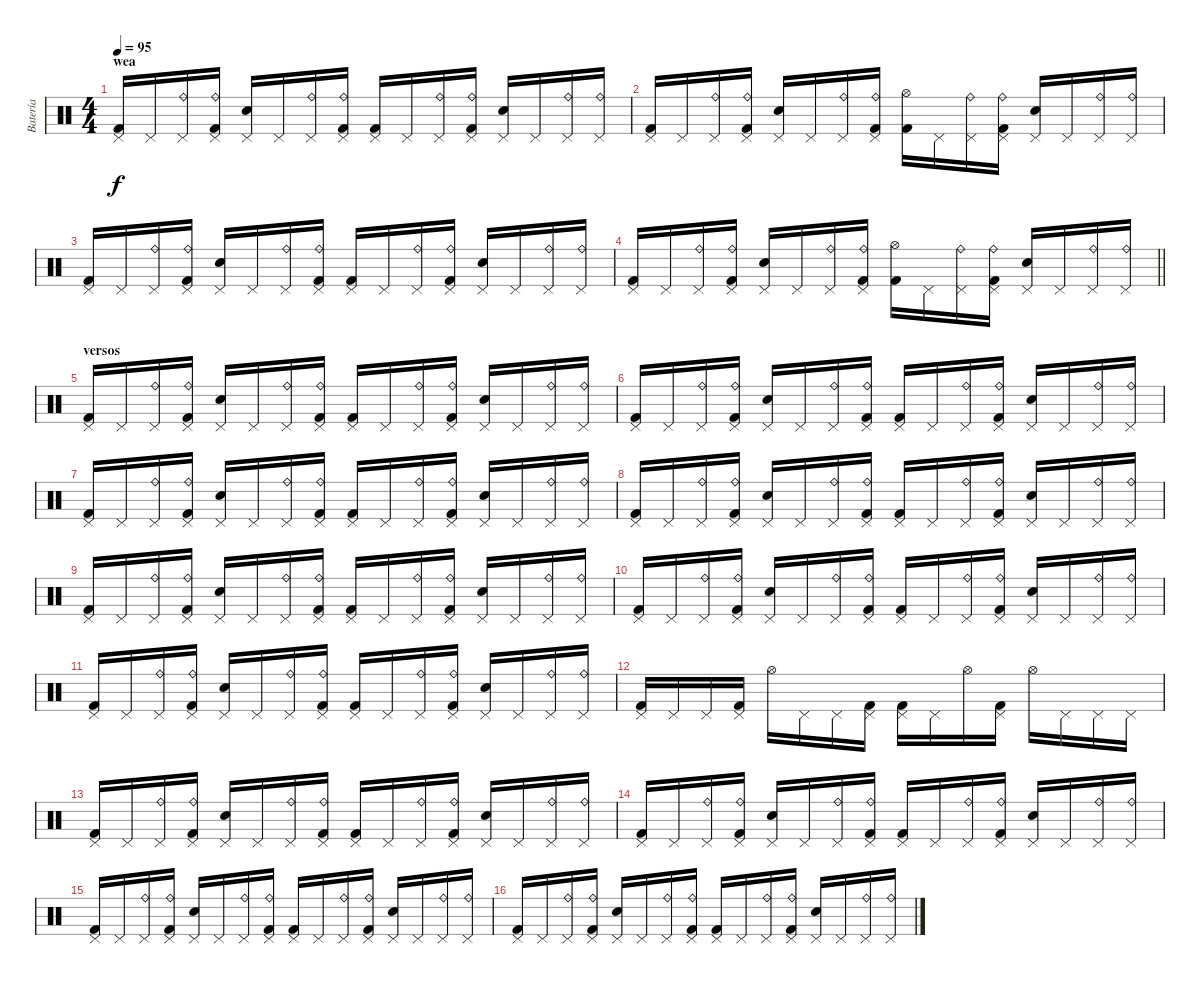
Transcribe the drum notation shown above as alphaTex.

\track ("Batería" "Batería") {instrument percussion}
\staff {score}
\articulation defaults
\ts (4 4)
\section ("" "wea")
\tempo 95
\clef neutral
\ks c
("Pedal Hi-Hat (hit)" "Kick (hit) 2").16{dy f} "Pedal Hi-Hat (hit)".16 ("Ride (bell)" "Pedal Hi-Hat (hit)").16 ("Ride (bell)" "Pedal Hi-Hat (hit)" "Kick (hit) 2").16 ("Pedal Hi-Hat (hit)" "Snare (hit) 2").16 "Pedal Hi-Hat (hit)".16 ("Ride (bell)" "Pedal Hi-Hat (hit)").16 ("Ride (bell)" "Pedal Hi-Hat (hit)" "Kick (hit) 2").16 ("Pedal Hi-Hat (hit)" "Kick (hit) 2").16 "Pedal Hi-Hat (hit)".16 ("Ride (bell)" "Pedal Hi-Hat (hit)").16 ("Ride (bell)" "Pedal Hi-Hat (hit)" "Kick (hit) 2").16 ("Pedal Hi-Hat (hit)" "Snare (hit) 2").16 "Pedal Hi-Hat (hit)".16 ("Ride (bell)" "Pedal Hi-Hat (hit)").16 ("Ride (bell)" "Pedal Hi-Hat (hit)").16 |
("Pedal Hi-Hat (hit)" "Kick (hit) 2").16 "Pedal Hi-Hat (hit)".16 ("Ride (bell)" "Pedal Hi-Hat (hit)").16 ("Ride (bell)" "Pedal Hi-Hat (hit)" "Kick (hit) 2").16 ("Pedal Hi-Hat (hit)" "Snare (hit) 2").16 "Pedal Hi-Hat (hit)".16 ("Ride (bell)" "Pedal Hi-Hat (hit)").16 ("Ride (bell)" "Pedal Hi-Hat (hit)" "Kick (hit) 2").16 ("Hi-Hat (open)" "Kick (hit) 2").16 "Pedal Hi-Hat (hit)".16 ("Ride (bell)" "Pedal Hi-Hat (hit)").16 ("Ride (bell)" "Pedal Hi-Hat (hit)" "Kick (hit) 2").16 ("Pedal Hi-Hat (hit)" "Snare (hit) 2").16 "Pedal Hi-Hat (hit)".16 ("Ride (bell)" "Pedal Hi-Hat (hit)").16 ("Ride (bell)" "Pedal Hi-Hat (hit)").16 |
("Pedal Hi-Hat (hit)" "Kick (hit) 2").16 "Pedal Hi-Hat (hit)".16 ("Ride (bell)" "Pedal Hi-Hat (hit)").16 ("Ride (bell)" "Pedal Hi-Hat (hit)" "Kick (hit) 2").16 ("Pedal Hi-Hat (hit)" "Snare (hit) 2").16 "Pedal Hi-Hat (hit)".16 ("Ride (bell)" "Pedal Hi-Hat (hit)").16 ("Ride (bell)" "Pedal Hi-Hat (hit)" "Kick (hit) 2").16 ("Pedal Hi-Hat (hit)" "Kick (hit) 2").16 "Pedal Hi-Hat (hit)".16 ("Ride (bell)" "Pedal Hi-Hat (hit)").16 ("Ride (bell)" "Pedal Hi-Hat (hit)" "Kick (hit) 2").16 ("Pedal Hi-Hat (hit)" "Snare (hit) 2").16 "Pedal Hi-Hat (hit)".16 ("Ride (bell)" "Pedal Hi-Hat (hit)").16 ("Ride (bell)" "Pedal Hi-Hat (hit)").16 |
\barLineRight lightlight
("Pedal Hi-Hat (hit)" "Kick (hit) 2").16 "Pedal Hi-Hat (hit)".16 ("Ride (bell)" "Pedal Hi-Hat (hit)").16 ("Ride (bell)" "Pedal Hi-Hat (hit)" "Kick (hit) 2").16 ("Pedal Hi-Hat (hit)" "Snare (hit) 2").16 "Pedal Hi-Hat (hit)".16 ("Ride (bell)" "Pedal Hi-Hat (hit)").16 ("Ride (bell)" "Pedal Hi-Hat (hit)" "Kick (hit) 2").16 ("Hi-Hat (open)" "Kick (hit) 2").16 "Pedal Hi-Hat (hit)".16 ("Ride (bell)" "Pedal Hi-Hat (hit)").16 ("Ride (bell)" "Pedal Hi-Hat (hit)" "Kick (hit) 2").16 ("Pedal Hi-Hat (hit)" "Snare (hit) 2").16 "Pedal Hi-Hat (hit)".16 ("Ride (bell)" "Pedal Hi-Hat (hit)").16 ("Ride (bell)" "Pedal Hi-Hat (hit)").16 |
\section ("" "versos")
("Pedal Hi-Hat (hit)" "Kick (hit) 2").16 "Pedal Hi-Hat (hit)".16 ("Ride (bell)" "Pedal Hi-Hat (hit)").16 ("Ride (bell)" "Pedal Hi-Hat (hit)" "Kick (hit) 2").16 ("Pedal Hi-Hat (hit)" "Snare (hit) 2").16 "Pedal Hi-Hat (hit)".16 ("Ride (bell)" "Pedal Hi-Hat (hit)").16 ("Ride (bell)" "Pedal Hi-Hat (hit)" "Kick (hit) 2").16 ("Pedal Hi-Hat (hit)" "Kick (hit) 2").16 "Pedal Hi-Hat (hit)".16 ("Ride (bell)" "Pedal Hi-Hat (hit)").16 ("Ride (bell)" "Pedal Hi-Hat (hit)" "Kick (hit) 2").16 ("Pedal Hi-Hat (hit)" "Snare (hit) 2").16 "Pedal Hi-Hat (hit)".16 ("Ride (bell)" "Pedal Hi-Hat (hit)").16 ("Ride (bell)" "Pedal Hi-Hat (hit)").16 |
("Pedal Hi-Hat (hit)" "Kick (hit) 2").16 "Pedal Hi-Hat (hit)".16 ("Ride (bell)" "Pedal Hi-Hat (hit)").16 ("Ride (bell)" "Pedal Hi-Hat (hit)" "Kick (hit) 2").16 ("Pedal Hi-Hat (hit)" "Snare (hit) 2").16 "Pedal Hi-Hat (hit)".16 ("Ride (bell)" "Pedal Hi-Hat (hit)").16 ("Ride (bell)" "Pedal Hi-Hat (hit)" "Kick (hit) 2").16 ("Pedal Hi-Hat (hit)" "Kick (hit) 2").16 "Pedal Hi-Hat (hit)".16 ("Ride (bell)" "Pedal Hi-Hat (hit)").16 ("Ride (bell)" "Pedal Hi-Hat (hit)" "Kick (hit) 2").16 ("Pedal Hi-Hat (hit)" "Snare (hit) 2").16 "Pedal Hi-Hat (hit)".16 ("Ride (bell)" "Pedal Hi-Hat (hit)").16 ("Ride (bell)" "Pedal Hi-Hat (hit)").16 |
("Pedal Hi-Hat (hit)" "Kick (hit) 2").16 "Pedal Hi-Hat (hit)".16 ("Ride (bell)" "Pedal Hi-Hat (hit)").16 ("Ride (bell)" "Pedal Hi-Hat (hit)" "Kick (hit) 2").16 ("Pedal Hi-Hat (hit)" "Snare (hit) 2").16 "Pedal Hi-Hat (hit)".16 ("Ride (bell)" "Pedal Hi-Hat (hit)").16 ("Ride (bell)" "Pedal Hi-Hat (hit)" "Kick (hit) 2").16 ("Pedal Hi-Hat (hit)" "Kick (hit) 2").16 "Pedal Hi-Hat (hit)".16 ("Ride (bell)" "Pedal Hi-Hat (hit)").16 ("Ride (bell)" "Pedal Hi-Hat (hit)" "Kick (hit) 2").16 ("Pedal Hi-Hat (hit)" "Snare (hit) 2").16 "Pedal Hi-Hat (hit)".16 ("Ride (bell)" "Pedal Hi-Hat (hit)").16 ("Ride (bell)" "Pedal Hi-Hat (hit)").16 |
("Pedal Hi-Hat (hit)" "Kick (hit) 2").16 "Pedal Hi-Hat (hit)".16 ("Ride (bell)" "Pedal Hi-Hat (hit)").16 ("Ride (bell)" "Pedal Hi-Hat (hit)" "Kick (hit) 2").16 ("Pedal Hi-Hat (hit)" "Snare (hit) 2").16 "Pedal Hi-Hat (hit)".16 ("Ride (bell)" "Pedal Hi-Hat (hit)").16 ("Ride (bell)" "Pedal Hi-Hat (hit)" "Kick (hit) 2").16 ("Pedal Hi-Hat (hit)" "Kick (hit) 2").16 "Pedal Hi-Hat (hit)".16 ("Ride (bell)" "Pedal Hi-Hat (hit)").16 ("Ride (bell)" "Pedal Hi-Hat (hit)" "Kick (hit) 2").16 ("Pedal Hi-Hat (hit)" "Snare (hit) 2").16 "Pedal Hi-Hat (hit)".16 ("Ride (bell)" "Pedal Hi-Hat (hit)").16 ("Ride (bell)" "Pedal Hi-Hat (hit)").16 |
("Pedal Hi-Hat (hit)" "Kick (hit) 2").16 "Pedal Hi-Hat (hit)".16 ("Ride (bell)" "Pedal Hi-Hat (hit)").16 ("Ride (bell)" "Pedal Hi-Hat (hit)" "Kick (hit) 2").16 ("Pedal Hi-Hat (hit)" "Snare (hit) 2").16 "Pedal Hi-Hat (hit)".16 ("Ride (bell)" "Pedal Hi-Hat (hit)").16 ("Ride (bell)" "Pedal Hi-Hat (hit)" "Kick (hit) 2").16 ("Pedal Hi-Hat (hit)" "Kick (hit) 2").16 "Pedal Hi-Hat (hit)".16 ("Ride (bell)" "Pedal Hi-Hat (hit)").16 ("Ride (bell)" "Pedal Hi-Hat (hit)" "Kick (hit) 2").16 ("Pedal Hi-Hat (hit)" "Snare (hit) 2").16 "Pedal Hi-Hat (hit)".16 ("Ride (bell)" "Pedal Hi-Hat (hit)").16 ("Ride (bell)" "Pedal Hi-Hat (hit)").16 |
("Pedal Hi-Hat (hit)" "Kick (hit) 2").16 "Pedal Hi-Hat (hit)".16 ("Ride (bell)" "Pedal Hi-Hat (hit)").16 ("Ride (bell)" "Pedal Hi-Hat (hit)" "Kick (hit) 2").16 ("Pedal Hi-Hat (hit)" "Snare (hit) 2").16 "Pedal Hi-Hat (hit)".16 ("Ride (bell)" "Pedal Hi-Hat (hit)").16 ("Ride (bell)" "Pedal Hi-Hat (hit)" "Kick (hit) 2").16 ("Pedal Hi-Hat (hit)" "Kick (hit) 2").16 "Pedal Hi-Hat (hit)".16 ("Ride (bell)" "Pedal Hi-Hat (hit)").16 ("Ride (bell)" "Pedal Hi-Hat (hit)" "Kick (hit) 2").16 ("Pedal Hi-Hat (hit)" "Snare (hit) 2").16 "Pedal Hi-Hat (hit)".16 ("Ride (bell)" "Pedal Hi-Hat (hit)").16 ("Ride (bell)" "Pedal Hi-Hat (hit)").16 |
("Pedal Hi-Hat (hit)" "Kick (hit) 2").16 "Pedal Hi-Hat (hit)".16 ("Ride (bell)" "Pedal Hi-Hat (hit)").16 ("Ride (bell)" "Pedal Hi-Hat (hit)" "Kick (hit) 2").16 ("Pedal Hi-Hat (hit)" "Snare (hit) 2").16 "Pedal Hi-Hat (hit)".16 ("Ride (bell)" "Pedal Hi-Hat (hit)").16 ("Ride (bell)" "Pedal Hi-Hat (hit)" "Kick (hit) 2").16 ("Pedal Hi-Hat (hit)" "Kick (hit) 2").16 "Pedal Hi-Hat (hit)".16 ("Ride (bell)" "Pedal Hi-Hat (hit)").16 ("Ride (bell)" "Pedal Hi-Hat (hit)" "Kick (hit) 2").16 ("Pedal Hi-Hat (hit)" "Snare (hit) 2").16 "Pedal Hi-Hat (hit)".16 ("Ride (bell)" "Pedal Hi-Hat (hit)").16 ("Ride (bell)" "Pedal Hi-Hat (hit)").16 |
("Pedal Hi-Hat (hit)" "Kick (hit) 2").16 "Pedal Hi-Hat (hit)".16 "Pedal Hi-Hat (hit)".16 ("Pedal Hi-Hat (hit)" "Kick (hit) 2").16 "Hi-Hat (open)".16 "Pedal Hi-Hat (hit)".16 "Pedal Hi-Hat (hit)".16 ("Pedal Hi-Hat (hit)" "Kick (hit) 2").16 ("Pedal Hi-Hat (hit)" "Kick (hit) 2").16 "Pedal Hi-Hat (hit)".16 "Hi-Hat (open)".16 ("Pedal Hi-Hat (hit)" "Kick (hit) 2").16 "Hi-Hat (open)".16 "Pedal Hi-Hat (hit)".16 "Pedal Hi-Hat (hit)".16 "Pedal Hi-Hat (hit)".16 |
("Pedal Hi-Hat (hit)" "Kick (hit) 2").16 "Pedal Hi-Hat (hit)".16 ("Ride (bell)" "Pedal Hi-Hat (hit)").16 ("Ride (bell)" "Pedal Hi-Hat (hit)" "Kick (hit) 2").16 ("Pedal Hi-Hat (hit)" "Snare (hit) 2").16 "Pedal Hi-Hat (hit)".16 ("Ride (bell)" "Pedal Hi-Hat (hit)").16 ("Ride (bell)" "Pedal Hi-Hat (hit)" "Kick (hit) 2").16 ("Pedal Hi-Hat (hit)" "Kick (hit) 2").16 "Pedal Hi-Hat (hit)".16 ("Ride (bell)" "Pedal Hi-Hat (hit)").16 ("Ride (bell)" "Pedal Hi-Hat (hit)" "Kick (hit) 2").16 ("Pedal Hi-Hat (hit)" "Snare (hit) 2").16 "Pedal Hi-Hat (hit)".16 ("Ride (bell)" "Pedal Hi-Hat (hit)").16 ("Ride (bell)" "Pedal Hi-Hat (hit)").16 |
("Pedal Hi-Hat (hit)" "Kick (hit) 2").16 "Pedal Hi-Hat (hit)".16 ("Ride (bell)" "Pedal Hi-Hat (hit)").16 ("Ride (bell)" "Pedal Hi-Hat (hit)" "Kick (hit) 2").16 ("Pedal Hi-Hat (hit)" "Snare (hit) 2").16 "Pedal Hi-Hat (hit)".16 ("Ride (bell)" "Pedal Hi-Hat (hit)").16 ("Ride (bell)" "Pedal Hi-Hat (hit)" "Kick (hit) 2").16 ("Pedal Hi-Hat (hit)" "Kick (hit) 2").16 "Pedal Hi-Hat (hit)".16 ("Ride (bell)" "Pedal Hi-Hat (hit)").16 ("Ride (bell)" "Pedal Hi-Hat (hit)" "Kick (hit) 2").16 ("Pedal Hi-Hat (hit)" "Snare (hit) 2").16 "Pedal Hi-Hat (hit)".16 ("Ride (bell)" "Pedal Hi-Hat (hit)").16 ("Ride (bell)" "Pedal Hi-Hat (hit)").16 |
("Pedal Hi-Hat (hit)" "Kick (hit) 2").16 "Pedal Hi-Hat (hit)".16 ("Ride (bell)" "Pedal Hi-Hat (hit)").16 ("Ride (bell)" "Pedal Hi-Hat (hit)" "Kick (hit) 2").16 ("Pedal Hi-Hat (hit)" "Snare (hit) 2").16 "Pedal Hi-Hat (hit)".16 ("Ride (bell)" "Pedal Hi-Hat (hit)").16 ("Ride (bell)" "Pedal Hi-Hat (hit)" "Kick (hit) 2").16 ("Pedal Hi-Hat (hit)" "Kick (hit) 2").16 "Pedal Hi-Hat (hit)".16 ("Ride (bell)" "Pedal Hi-Hat (hit)").16 ("Ride (bell)" "Pedal Hi-Hat (hit)" "Kick (hit) 2").16 ("Pedal Hi-Hat (hit)" "Snare (hit) 2").16 "Pedal Hi-Hat (hit)".16 ("Ride (bell)" "Pedal Hi-Hat (hit)").16 ("Ride (bell)" "Pedal Hi-Hat (hit)").16 |
("Pedal Hi-Hat (hit)" "Kick (hit) 2").16 "Pedal Hi-Hat (hit)".16 ("Ride (bell)" "Pedal Hi-Hat (hit)").16 ("Ride (bell)" "Pedal Hi-Hat (hit)" "Kick (hit) 2").16 ("Pedal Hi-Hat (hit)" "Snare (hit) 2").16 "Pedal Hi-Hat (hit)".16 ("Ride (bell)" "Pedal Hi-Hat (hit)").16 ("Ride (bell)" "Pedal Hi-Hat (hit)" "Kick (hit) 2").16 ("Pedal Hi-Hat (hit)" "Kick (hit) 2").16 "Pedal Hi-Hat (hit)".16 ("Ride (bell)" "Pedal Hi-Hat (hit)").16 ("Ride (bell)" "Pedal Hi-Hat (hit)" "Kick (hit) 2").16 ("Pedal Hi-Hat (hit)" "Snare (hit) 2").16 "Pedal Hi-Hat (hit)".16 ("Ride (bell)" "Pedal Hi-Hat (hit)").16 ("Ride (bell)" "Pedal Hi-Hat (hit)").16
